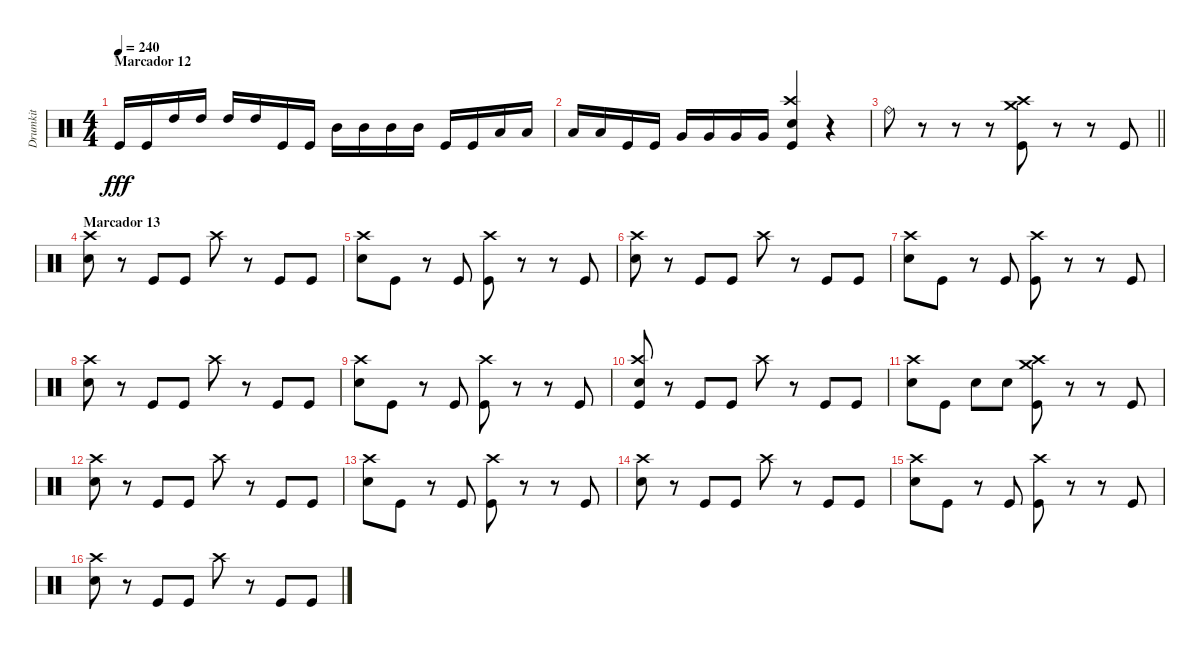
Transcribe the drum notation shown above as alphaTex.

\track ("Drumkit" "Drumkit") {instrument percussion}
\staff {score}
\articulation defaults
\ts (4 4)
\section ("" "Marcador 12")
\tempo 240
\clef neutral
\ks c "Kick (hit)".16{dy fff} "Kick (hit)".16 "High Tom (hit)".16 "High Tom (hit)".16 "High Tom (hit)".16 "High Tom (hit)".16 "Kick (hit)".16 "Kick (hit)".16 "Mid Tom (hit)".16 "Mid Tom (hit)".16 "Mid Tom (hit)".16 "Mid Tom (hit)".16 "Kick (hit)".16 "Kick (hit)".16 "Low Tom (hit)".16 "Low Tom (hit)".16
|
"Low Tom (hit)".16 "Low Tom (hit)".16 "Kick (hit)".16 "Kick (hit)".16 "Very Low Tom (hit)".16 "Very Low Tom (hit)".16 "Very Low Tom (hit)".16 "Very Low Tom (hit)".16 ("Crash high (hit)" "Snare (hit) 2" "Kick (hit)").4 r.4 |
\barLineRight lightlight "Ride (bell)".8
r.8 r.8 r.8 ("Crash high (hit)" "Crash medium (hit)" "Kick (hit)").8 r.8 r.8 "Kick (hit)".8 |
\section ("" "Marcador 13")
("Crash high (hit)" "Snare (hit) 2").8 r.8 "Kick (hit)".8 "Kick (hit)".8 "Crash high (hit)".8 r.8 "Kick (hit)".8 "Kick (hit)".8 |
("Crash high (hit)" "Snare (hit) 2").8 "Kick (hit)".8 r.8 "Kick (hit)".8 ("Crash high (hit)" "Kick (hit)").8 r.8 r.8 "Kick (hit)".8 |
("Crash high (hit)" "Snare (hit) 2").8 r.8 "Kick (hit)".8 "Kick (hit)".8 "Crash high (hit)".8 r.8 "Kick (hit)".8 "Kick (hit)".8 |
("Crash high (hit)" "Snare (hit) 2").8 "Kick (hit)".8 r.8 "Kick (hit)".8 ("Crash high (hit)" "Kick (hit)").8 r.8 r.8 "Kick (hit)".8 |
("Crash high (hit)" "Snare (hit) 2").8 r.8 "Kick (hit)".8 "Kick (hit)".8 "Crash high (hit)".8 r.8 "Kick (hit)".8 "Kick (hit)".8 |
("Crash high (hit)" "Snare (hit) 2").8 "Kick (hit)".8 r.8 "Kick (hit)".8 ("Crash high (hit)" "Kick (hit)").8 r.8 r.8 "Kick (hit)".8 |
("Crash high (hit)" "Snare (hit) 2" "Kick (hit)").8 r.8 "Kick (hit)".8 "Kick (hit)".8 "Crash high (hit)".8 r.8 "Kick (hit)".8 "Kick (hit)".8 |
("Crash high (hit)" "Snare (hit) 2").8 "Kick (hit)".8 "Snare (hit) 2".8 "Snare (hit) 2".8 ("Crash high (hit)" "Crash medium (hit)" "Kick (hit)").8 r.8 r.8 "Kick (hit)".8 |
("Crash high (hit)" "Snare (hit) 2").8 r.8 "Kick (hit)".8 "Kick (hit)".8 "Crash high (hit)".8 r.8 "Kick (hit)".8 "Kick (hit)".8 |
("Crash high (hit)" "Snare (hit) 2").8 "Kick (hit)".8 r.8 "Kick (hit)".8 ("Crash high (hit)" "Kick (hit)").8 r.8 r.8 "Kick (hit)".8 |
("Crash high (hit)" "Snare (hit) 2").8 r.8 "Kick (hit)".8 "Kick (hit)".8 "Crash high (hit)".8 r.8 "Kick (hit)".8 "Kick (hit)".8 |
("Crash high (hit)" "Snare (hit) 2").8 "Kick (hit)".8 r.8 "Kick (hit)".8 ("Crash high (hit)" "Kick (hit)").8 r.8 r.8 "Kick (hit)".8 |
("Crash high (hit)" "Snare (hit) 2").8 r.8 "Kick (hit)".8 "Kick (hit)".8 "Crash high (hit)".8 r.8 "Kick (hit)".8 "Kick (hit)".8
